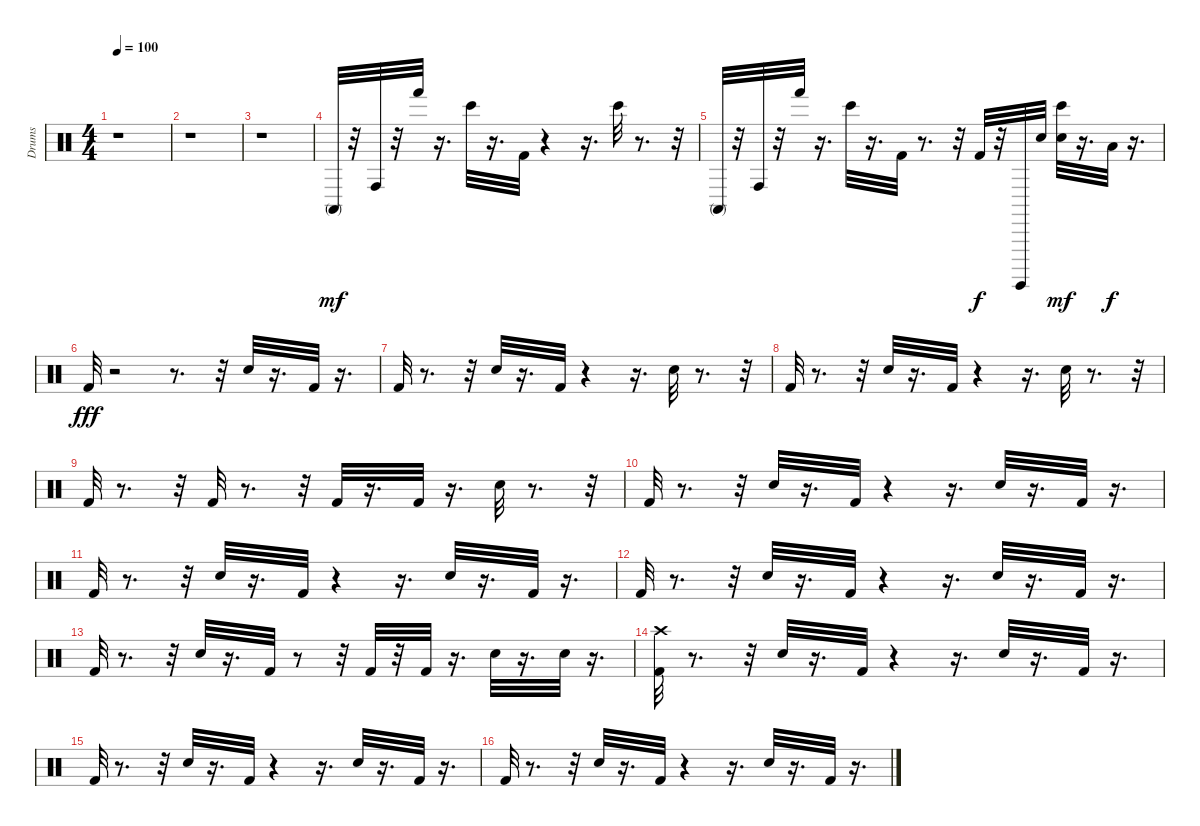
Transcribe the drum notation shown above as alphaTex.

\track ("Drums" "Drums") {instrument percussion}
\staff {score}
\articulation defaults
\ts (4 4)
\tempo 100
\clef neutral
\ks c
r.1{dy mf} |
r.1 |
r.1 |
"Conga high (mute)".32 r.32 "Conga high (hit)".32 r.32 "Hand (hit)".32 r.16{d} "Bongo High (hit)".32 r.16{d} "Kick (hit) 2".32 r.4 r.16{d} "Bongo High (hit)".32 r.8{d} r.32 |
"Conga high (mute)".32 r.32 "Conga high (hit)".32 r.32 "Hand (hit)".32 r.16{d} "Bongo High (hit)".32 r.16{d} "Kick (hit) 2".32 r.8{d} r.32 "Kick (hit) 2".32{dy f} r.32 "Surdo (hit)".32 "Electric Snare (hit)".32 ("Electric Snare (hit)" "Bongo High (hit)").32{dy mf} r.16{d} "Low Floor Tom (hit)".32{dy f} r.16{d} |
"Kick (hit) 2".32{dy fff} r.2 r.8{d} r.32 "Electric Snare (hit)".32 r.16{d} "Kick (hit) 2".32 r.16{d} |
"Kick (hit) 2".32 r.8{d} r.32 "Electric Snare (hit)".32 r.16{d} "Kick (hit) 2".32 r.4 r.16{d} "Electric Snare (hit)".32 r.8{d} r.32 |
"Kick (hit) 2".32 r.8{d} r.32 "Electric Snare (hit)".32 r.16{d} "Kick (hit) 2".32 r.4 r.16{d} "Electric Snare (hit)".32 r.8{d} r.32 |
"Kick (hit) 2".32 r.8{d} r.32 "Kick (hit) 2".32 r.8{d} r.32 "Kick (hit) 2".32 r.16{d} "Kick (hit) 2".32 r.16{d} "Electric Snare (hit)".32 r.8{d} r.32 |
"Kick (hit) 2".32 r.8{d} r.32 "Electric Snare (hit)".32 r.16{d} "Kick (hit) 2".32 r.4 r.16{d} "Electric Snare (hit)".32 r.16{d} "Kick (hit) 2".32 r.16{d} |
"Kick (hit) 2".32 r.8{d} r.32 "Electric Snare (hit)".32 r.16{d} "Kick (hit) 2".32 r.4 r.16{d} "Electric Snare (hit)".32 r.16{d} "Kick (hit) 2".32 r.16{d} |
"Kick (hit) 2".32 r.8{d} r.32 "Electric Snare (hit)".32 r.16{d} "Kick (hit) 2".32 r.4 r.16{d} "Electric Snare (hit)".32 r.16{d} "Kick (hit) 2".32 r.16{d} |
"Kick (hit) 2".32 r.8{d} r.32 "Electric Snare (hit)".32 r.16{d} "Kick (hit) 2".32 r.8 r.32 "Kick (hit) 2".32 r.32 "Kick (hit) 2".32 r.16{d} "Electric Snare (hit)".32 r.16{d} "Electric Snare (hit)".32 r.16{d} |
("Crash high (hit)" "Kick (hit) 2").32 r.8{d} r.32 "Electric Snare (hit)".32 r.16{d} "Kick (hit) 2".32 r.4 r.16{d} "Electric Snare (hit)".32 r.16{d} "Kick (hit) 2".32 r.16{d} |
"Kick (hit) 2".32 r.8{d} r.32 "Electric Snare (hit)".32 r.16{d} "Kick (hit) 2".32 r.4 r.16{d} "Electric Snare (hit)".32 r.16{d} "Kick (hit) 2".32 r.16{d} |
"Kick (hit) 2".32 r.8{d} r.32 "Electric Snare (hit)".32 r.16{d} "Kick (hit) 2".32 r.4 r.16{d} "Electric Snare (hit)".32 r.16{d} "Kick (hit) 2".32 r.16{d}
